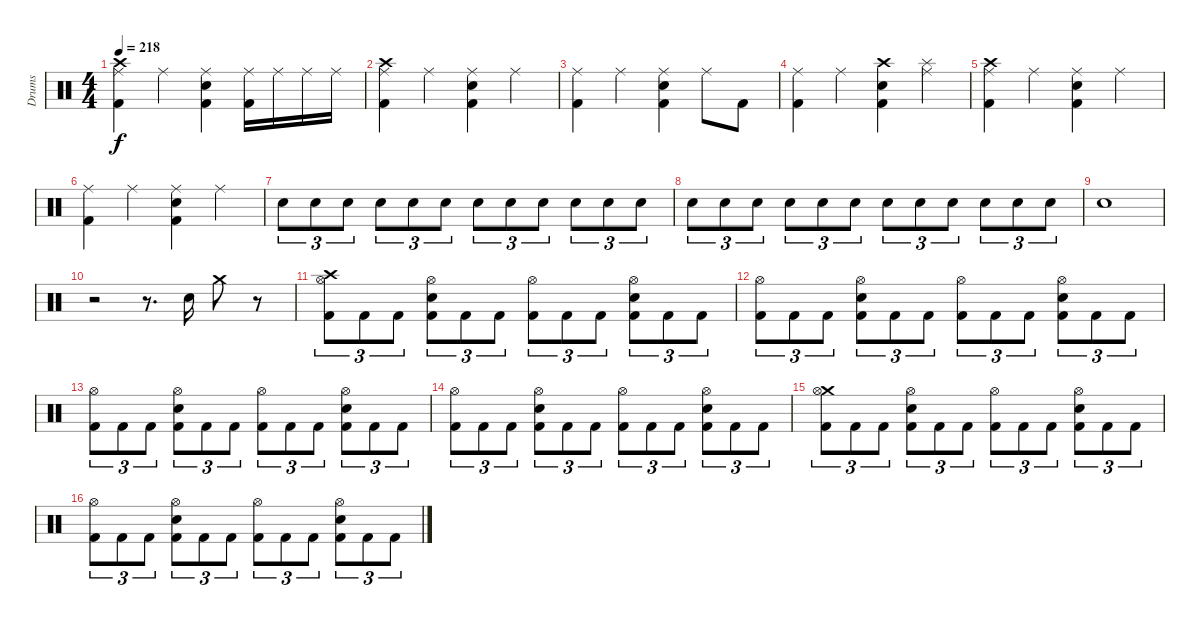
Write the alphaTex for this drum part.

\track ("Drums" "Drums") {instrument percussion}
\staff {score}
\articulation defaults
\ts (4 4)
\tempo 218
\clef neutral
\ks c
("Ride (middle)" "Crash high (hit)" "Kick (hit) 2").4{dy f} "Ride (middle)".4 ("Ride (middle)" "Electric Snare (hit)" "Kick (hit) 2").4 ("Ride (middle)" "Kick (hit) 2").16 "Ride (middle)".16 "Ride (middle)".16 "Ride (middle)".16 |
("Ride (middle)" "Crash high (hit)" "Kick (hit) 2").4 "Ride (middle)".4 ("Ride (middle)" "Electric Snare (hit)" "Kick (hit) 2").4 "Ride (middle)".4 |
("Ride (middle)" "Kick (hit) 2").4 "Ride (middle)".4 ("Ride (middle)" "Electric Snare (hit)" "Kick (hit) 2").4 "Ride (middle)".8 "Kick (hit) 2".8 |
("Ride (middle)" "Kick (hit) 2").4 "Ride (middle)".4 ("Crash high (hit)" "Electric Snare (hit)" "Kick (hit) 2").4 ("Splash (hit)" "Ride (middle)").4 |
("Crash high (hit)" "Ride (middle)" "Kick (hit) 2").4 "Ride (middle)".4 ("Ride (middle)" "Electric Snare (hit)" "Kick (hit) 2").4 "Ride (middle)".4 |
("Ride (middle)" "Kick (hit) 2").4 "Ride (middle)".4 ("Ride (middle)" "Electric Snare (hit)" "Kick (hit) 2").4 "Ride (middle)".4 |
"Electric Snare (hit)".8{tu (3 2)} "Electric Snare (hit)".8{tu (3 2)} "Electric Snare (hit)".8{tu (3 2)} "Electric Snare (hit)".8{tu (3 2)} "Electric Snare (hit)".8{tu (3 2)} "Electric Snare (hit)".8{tu (3 2)} "Electric Snare (hit)".8{tu (3 2)} "Electric Snare (hit)".8{tu (3 2)} "Electric Snare (hit)".8{tu (3 2)} "Electric Snare (hit)".8{tu (3 2)} "Electric Snare (hit)".8{tu (3 2)} "Electric Snare (hit)".8{tu (3 2)} |
"Electric Snare (hit)".8{tu (3 2)} "Electric Snare (hit)".8{tu (3 2)} "Electric Snare (hit)".8{tu (3 2)} "Electric Snare (hit)".8{tu (3 2)} "Electric Snare (hit)".8{tu (3 2)} "Electric Snare (hit)".8{tu (3 2)} "Electric Snare (hit)".8{tu (3 2)} "Electric Snare (hit)".8{tu (3 2)} "Electric Snare (hit)".8{tu (3 2)} "Electric Snare (hit)".8{tu (3 2)} "Electric Snare (hit)".8{tu (3 2)} "Electric Snare (hit)".8{tu (3 2)} |
"Electric Snare (hit)".1 |
r.2 r.8{d} "Electric Snare (hit)".16 "Crash medium (hit)".8 r.8 |
("Crash high (hit)" "Hi-Hat (open)" "Kick (hit) 2").8{tu (3 2)} "Kick (hit) 2".8{tu (3 2)} "Kick (hit) 2".8{tu (3 2)} ("Hi-Hat (open)" "Electric Snare (hit)" "Kick (hit) 2").8{tu (3 2)} "Kick (hit) 2".8{tu (3 2)} "Kick (hit) 2".8{tu (3 2)} ("Hi-Hat (open)" "Kick (hit) 2").8{tu (3 2)} "Kick (hit) 2".8{tu (3 2)} "Kick (hit) 2".8{tu (3 2)} ("Hi-Hat (open)" "Electric Snare (hit)" "Kick (hit) 2").8{tu (3 2)} "Kick (hit) 2".8{tu (3 2)} "Kick (hit) 2".8{tu (3 2)} |
("Hi-Hat (open)" "Kick (hit) 2").8{tu (3 2)} "Kick (hit) 2".8{tu (3 2)} "Kick (hit) 2".8{tu (3 2)} ("Hi-Hat (open)" "Electric Snare (hit)" "Kick (hit) 2").8{tu (3 2)} "Kick (hit) 2".8{tu (3 2)} "Kick (hit) 2".8{tu (3 2)} ("Hi-Hat (open)" "Kick (hit) 2").8{tu (3 2)} "Kick (hit) 2".8{tu (3 2)} "Kick (hit) 2".8{tu (3 2)} ("Hi-Hat (open)" "Electric Snare (hit)" "Kick (hit) 2").8{tu (3 2)} "Kick (hit) 2".8{tu (3 2)} "Kick (hit) 2".8{tu (3 2)} |
("Hi-Hat (open)" "Kick (hit) 2").8{tu (3 2)} "Kick (hit) 2".8{tu (3 2)} "Kick (hit) 2".8{tu (3 2)} ("Hi-Hat (open)" "Electric Snare (hit)" "Kick (hit) 2").8{tu (3 2)} "Kick (hit) 2".8{tu (3 2)} "Kick (hit) 2".8{tu (3 2)} ("Hi-Hat (open)" "Kick (hit) 2").8{tu (3 2)} "Kick (hit) 2".8{tu (3 2)} "Kick (hit) 2".8{tu (3 2)} ("Hi-Hat (open)" "Electric Snare (hit)" "Kick (hit) 2").8{tu (3 2)} "Kick (hit) 2".8{tu (3 2)} "Kick (hit) 2".8{tu (3 2)} |
("Hi-Hat (open)" "Kick (hit) 2").8{tu (3 2)} "Kick (hit) 2".8{tu (3 2)} "Kick (hit) 2".8{tu (3 2)} ("Hi-Hat (open)" "Electric Snare (hit)" "Kick (hit) 2").8{tu (3 2)} "Kick (hit) 2".8{tu (3 2)} "Kick (hit) 2".8{tu (3 2)} ("Hi-Hat (open)" "Kick (hit) 2").8{tu (3 2)} "Kick (hit) 2".8{tu (3 2)} "Kick (hit) 2".8{tu (3 2)} ("Hi-Hat (open)" "Electric Snare (hit)" "Kick (hit) 2").8{tu (3 2)} "Kick (hit) 2".8{tu (3 2)} "Kick (hit) 2".8{tu (3 2)} |
("Crash medium (hit)" "Hi-Hat (open)" "Kick (hit) 2").8{tu (3 2)} "Kick (hit) 2".8{tu (3 2)} "Kick (hit) 2".8{tu (3 2)} ("Hi-Hat (open)" "Electric Snare (hit)" "Kick (hit) 2").8{tu (3 2)} "Kick (hit) 2".8{tu (3 2)} "Kick (hit) 2".8{tu (3 2)} ("Hi-Hat (open)" "Kick (hit) 2").8{tu (3 2)} "Kick (hit) 2".8{tu (3 2)} "Kick (hit) 2".8{tu (3 2)} ("Hi-Hat (open)" "Electric Snare (hit)" "Kick (hit) 2").8{tu (3 2)} "Kick (hit) 2".8{tu (3 2)} "Kick (hit) 2".8{tu (3 2)} |
("Hi-Hat (open)" "Kick (hit) 2").8{tu (3 2)} "Kick (hit) 2".8{tu (3 2)} "Kick (hit) 2".8{tu (3 2)} ("Hi-Hat (open)" "Electric Snare (hit)" "Kick (hit) 2").8{tu (3 2)} "Kick (hit) 2".8{tu (3 2)} "Kick (hit) 2".8{tu (3 2)} ("Hi-Hat (open)" "Kick (hit) 2").8{tu (3 2)} "Kick (hit) 2".8{tu (3 2)} "Kick (hit) 2".8{tu (3 2)} ("Hi-Hat (open)" "Electric Snare (hit)" "Kick (hit) 2").8{tu (3 2)} "Kick (hit) 2".8{tu (3 2)} "Kick (hit) 2".8{tu (3 2)}
